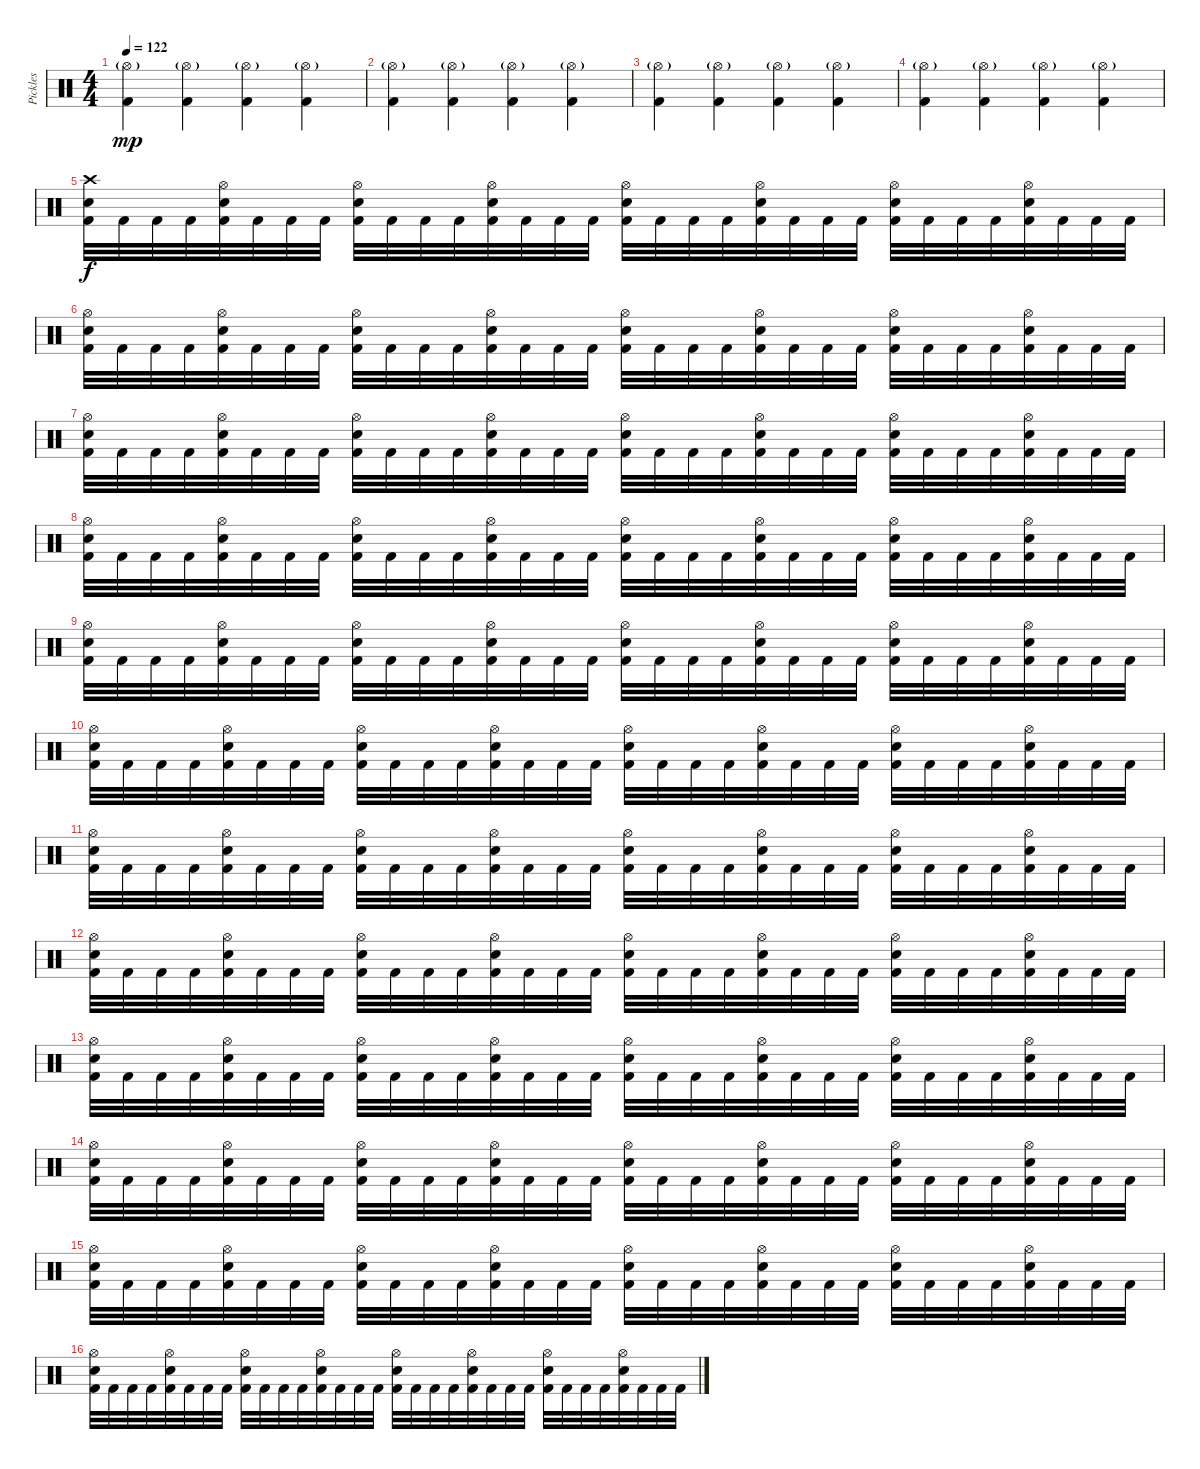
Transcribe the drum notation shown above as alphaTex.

\track ("Pickles" "Pickles") {instrument percussion}
\staff {score}
\articulation defaults
\ts (4 4)
\tempo 122
\clef neutral
\ks c
("Hi-Hat (open)"{g} "Kick (hit) 2").4{dy mp} ("Hi-Hat (open)"{g} "Kick (hit) 2").4 ("Hi-Hat (open)"{g} "Kick (hit) 2").4 ("Hi-Hat (open)"{g} "Kick (hit) 2").4 |
("Hi-Hat (open)"{g} "Kick (hit) 2").4 ("Hi-Hat (open)"{g} "Kick (hit) 2").4 ("Hi-Hat (open)"{g} "Kick (hit) 2").4 ("Hi-Hat (open)"{g} "Kick (hit) 2").4 |
("Hi-Hat (open)"{g} "Kick (hit) 2").4 ("Hi-Hat (open)"{g} "Kick (hit) 2").4 ("Hi-Hat (open)"{g} "Kick (hit) 2").4 ("Hi-Hat (open)"{g} "Kick (hit) 2").4 |
("Hi-Hat (open)"{g} "Kick (hit) 2").4 ("Hi-Hat (open)"{g} "Kick (hit) 2").4 ("Hi-Hat (open)"{g} "Kick (hit) 2").4 ("Hi-Hat (open)"{g} "Kick (hit) 2").4 |
("Crash high (hit)" "Electric Snare (hit)" "Kick (hit) 2").32{dy f} "Kick (hit) 2".32 "Kick (hit) 2".32 "Kick (hit) 2".32 ("Hi-Hat (open)" "Electric Snare (hit)" "Kick (hit) 2").32 "Kick (hit) 2".32 "Kick (hit) 2".32 "Kick (hit) 2".32 ("Hi-Hat (open)" "Electric Snare (hit)" "Kick (hit) 2").32 "Kick (hit) 2".32 "Kick (hit) 2".32 "Kick (hit) 2".32 ("Hi-Hat (open)" "Electric Snare (hit)" "Kick (hit) 2").32 "Kick (hit) 2".32 "Kick (hit) 2".32 "Kick (hit) 2".32 ("Hi-Hat (open)" "Electric Snare (hit)" "Kick (hit) 2").32 "Kick (hit) 2".32 "Kick (hit) 2".32 "Kick (hit) 2".32 ("Hi-Hat (open)" "Electric Snare (hit)" "Kick (hit) 2").32 "Kick (hit) 2".32 "Kick (hit) 2".32 "Kick (hit) 2".32 ("Hi-Hat (open)" "Electric Snare (hit)" "Kick (hit) 2").32 "Kick (hit) 2".32 "Kick (hit) 2".32 "Kick (hit) 2".32 ("Hi-Hat (open)" "Electric Snare (hit)" "Kick (hit) 2").32 "Kick (hit) 2".32 "Kick (hit) 2".32 "Kick (hit) 2".32 |
("Hi-Hat (open)" "Electric Snare (hit)" "Kick (hit) 2").32 "Kick (hit) 2".32 "Kick (hit) 2".32 "Kick (hit) 2".32 ("Hi-Hat (open)" "Electric Snare (hit)" "Kick (hit) 2").32 "Kick (hit) 2".32 "Kick (hit) 2".32 "Kick (hit) 2".32 ("Hi-Hat (open)" "Electric Snare (hit)" "Kick (hit) 2").32 "Kick (hit) 2".32 "Kick (hit) 2".32 "Kick (hit) 2".32 ("Hi-Hat (open)" "Electric Snare (hit)" "Kick (hit) 2").32 "Kick (hit) 2".32 "Kick (hit) 2".32 "Kick (hit) 2".32 ("Hi-Hat (open)" "Electric Snare (hit)" "Kick (hit) 2").32 "Kick (hit) 2".32 "Kick (hit) 2".32 "Kick (hit) 2".32 ("Hi-Hat (open)" "Electric Snare (hit)" "Kick (hit) 2").32 "Kick (hit) 2".32 "Kick (hit) 2".32 "Kick (hit) 2".32 ("Hi-Hat (open)" "Electric Snare (hit)" "Kick (hit) 2").32 "Kick (hit) 2".32 "Kick (hit) 2".32 "Kick (hit) 2".32 ("Hi-Hat (open)" "Electric Snare (hit)" "Kick (hit) 2").32 "Kick (hit) 2".32 "Kick (hit) 2".32 "Kick (hit) 2".32 |
("Hi-Hat (open)" "Electric Snare (hit)" "Kick (hit) 2").32 "Kick (hit) 2".32 "Kick (hit) 2".32 "Kick (hit) 2".32 ("Hi-Hat (open)" "Electric Snare (hit)" "Kick (hit) 2").32 "Kick (hit) 2".32 "Kick (hit) 2".32 "Kick (hit) 2".32 ("Hi-Hat (open)" "Electric Snare (hit)" "Kick (hit) 2").32 "Kick (hit) 2".32 "Kick (hit) 2".32 "Kick (hit) 2".32 ("Hi-Hat (open)" "Electric Snare (hit)" "Kick (hit) 2").32 "Kick (hit) 2".32 "Kick (hit) 2".32 "Kick (hit) 2".32 ("Hi-Hat (open)" "Electric Snare (hit)" "Kick (hit) 2").32 "Kick (hit) 2".32 "Kick (hit) 2".32 "Kick (hit) 2".32 ("Hi-Hat (open)" "Electric Snare (hit)" "Kick (hit) 2").32 "Kick (hit) 2".32 "Kick (hit) 2".32 "Kick (hit) 2".32 ("Hi-Hat (open)" "Electric Snare (hit)" "Kick (hit) 2").32 "Kick (hit) 2".32 "Kick (hit) 2".32 "Kick (hit) 2".32 ("Hi-Hat (open)" "Electric Snare (hit)" "Kick (hit) 2").32 "Kick (hit) 2".32 "Kick (hit) 2".32 "Kick (hit) 2".32 |
("Hi-Hat (open)" "Electric Snare (hit)" "Kick (hit) 2").32 "Kick (hit) 2".32 "Kick (hit) 2".32 "Kick (hit) 2".32 ("Hi-Hat (open)" "Electric Snare (hit)" "Kick (hit) 2").32 "Kick (hit) 2".32 "Kick (hit) 2".32 "Kick (hit) 2".32 ("Hi-Hat (open)" "Electric Snare (hit)" "Kick (hit) 2").32 "Kick (hit) 2".32 "Kick (hit) 2".32 "Kick (hit) 2".32 ("Hi-Hat (open)" "Electric Snare (hit)" "Kick (hit) 2").32 "Kick (hit) 2".32 "Kick (hit) 2".32 "Kick (hit) 2".32 ("Hi-Hat (open)" "Electric Snare (hit)" "Kick (hit) 2").32 "Kick (hit) 2".32 "Kick (hit) 2".32 "Kick (hit) 2".32 ("Hi-Hat (open)" "Electric Snare (hit)" "Kick (hit) 2").32 "Kick (hit) 2".32 "Kick (hit) 2".32 "Kick (hit) 2".32 ("Hi-Hat (open)" "Electric Snare (hit)" "Kick (hit) 2").32 "Kick (hit) 2".32 "Kick (hit) 2".32 "Kick (hit) 2".32 ("Hi-Hat (open)" "Electric Snare (hit)" "Kick (hit) 2").32 "Kick (hit) 2".32 "Kick (hit) 2".32 "Kick (hit) 2".32 |
("Hi-Hat (open)" "Electric Snare (hit)" "Kick (hit) 2").32 "Kick (hit) 2".32 "Kick (hit) 2".32 "Kick (hit) 2".32 ("Hi-Hat (open)" "Electric Snare (hit)" "Kick (hit) 2").32 "Kick (hit) 2".32 "Kick (hit) 2".32 "Kick (hit) 2".32 ("Hi-Hat (open)" "Electric Snare (hit)" "Kick (hit) 2").32 "Kick (hit) 2".32 "Kick (hit) 2".32 "Kick (hit) 2".32 ("Hi-Hat (open)" "Electric Snare (hit)" "Kick (hit) 2").32 "Kick (hit) 2".32 "Kick (hit) 2".32 "Kick (hit) 2".32 ("Hi-Hat (open)" "Electric Snare (hit)" "Kick (hit) 2").32 "Kick (hit) 2".32 "Kick (hit) 2".32 "Kick (hit) 2".32 ("Hi-Hat (open)" "Electric Snare (hit)" "Kick (hit) 2").32 "Kick (hit) 2".32 "Kick (hit) 2".32 "Kick (hit) 2".32 ("Hi-Hat (open)" "Electric Snare (hit)" "Kick (hit) 2").32 "Kick (hit) 2".32 "Kick (hit) 2".32 "Kick (hit) 2".32 ("Hi-Hat (open)" "Electric Snare (hit)" "Kick (hit) 2").32 "Kick (hit) 2".32 "Kick (hit) 2".32 "Kick (hit) 2".32 |
("Hi-Hat (open)" "Electric Snare (hit)" "Kick (hit) 2").32 "Kick (hit) 2".32 "Kick (hit) 2".32 "Kick (hit) 2".32 ("Hi-Hat (open)" "Electric Snare (hit)" "Kick (hit) 2").32 "Kick (hit) 2".32 "Kick (hit) 2".32 "Kick (hit) 2".32 ("Hi-Hat (open)" "Electric Snare (hit)" "Kick (hit) 2").32 "Kick (hit) 2".32 "Kick (hit) 2".32 "Kick (hit) 2".32 ("Hi-Hat (open)" "Electric Snare (hit)" "Kick (hit) 2").32 "Kick (hit) 2".32 "Kick (hit) 2".32 "Kick (hit) 2".32 ("Hi-Hat (open)" "Electric Snare (hit)" "Kick (hit) 2").32 "Kick (hit) 2".32 "Kick (hit) 2".32 "Kick (hit) 2".32 ("Hi-Hat (open)" "Electric Snare (hit)" "Kick (hit) 2").32 "Kick (hit) 2".32 "Kick (hit) 2".32 "Kick (hit) 2".32 ("Hi-Hat (open)" "Electric Snare (hit)" "Kick (hit) 2").32 "Kick (hit) 2".32 "Kick (hit) 2".32 "Kick (hit) 2".32 ("Hi-Hat (open)" "Electric Snare (hit)" "Kick (hit) 2").32 "Kick (hit) 2".32 "Kick (hit) 2".32 "Kick (hit) 2".32 |
("Hi-Hat (open)" "Electric Snare (hit)" "Kick (hit) 2").32 "Kick (hit) 2".32 "Kick (hit) 2".32 "Kick (hit) 2".32 ("Hi-Hat (open)" "Electric Snare (hit)" "Kick (hit) 2").32 "Kick (hit) 2".32 "Kick (hit) 2".32 "Kick (hit) 2".32 ("Hi-Hat (open)" "Electric Snare (hit)" "Kick (hit) 2").32 "Kick (hit) 2".32 "Kick (hit) 2".32 "Kick (hit) 2".32 ("Hi-Hat (open)" "Electric Snare (hit)" "Kick (hit) 2").32 "Kick (hit) 2".32 "Kick (hit) 2".32 "Kick (hit) 2".32 ("Hi-Hat (open)" "Electric Snare (hit)" "Kick (hit) 2").32 "Kick (hit) 2".32 "Kick (hit) 2".32 "Kick (hit) 2".32 ("Hi-Hat (open)" "Electric Snare (hit)" "Kick (hit) 2").32 "Kick (hit) 2".32 "Kick (hit) 2".32 "Kick (hit) 2".32 ("Hi-Hat (open)" "Electric Snare (hit)" "Kick (hit) 2").32 "Kick (hit) 2".32 "Kick (hit) 2".32 "Kick (hit) 2".32 ("Hi-Hat (open)" "Electric Snare (hit)" "Kick (hit) 2").32 "Kick (hit) 2".32 "Kick (hit) 2".32 "Kick (hit) 2".32 |
("Hi-Hat (open)" "Electric Snare (hit)" "Kick (hit) 2").32 "Kick (hit) 2".32 "Kick (hit) 2".32 "Kick (hit) 2".32 ("Hi-Hat (open)" "Electric Snare (hit)" "Kick (hit) 2").32 "Kick (hit) 2".32 "Kick (hit) 2".32 "Kick (hit) 2".32 ("Hi-Hat (open)" "Electric Snare (hit)" "Kick (hit) 2").32 "Kick (hit) 2".32 "Kick (hit) 2".32 "Kick (hit) 2".32 ("Hi-Hat (open)" "Electric Snare (hit)" "Kick (hit) 2").32 "Kick (hit) 2".32 "Kick (hit) 2".32 "Kick (hit) 2".32 ("Hi-Hat (open)" "Electric Snare (hit)" "Kick (hit) 2").32 "Kick (hit) 2".32 "Kick (hit) 2".32 "Kick (hit) 2".32 ("Hi-Hat (open)" "Electric Snare (hit)" "Kick (hit) 2").32 "Kick (hit) 2".32 "Kick (hit) 2".32 "Kick (hit) 2".32 ("Hi-Hat (open)" "Electric Snare (hit)" "Kick (hit) 2").32 "Kick (hit) 2".32 "Kick (hit) 2".32 "Kick (hit) 2".32 ("Hi-Hat (open)" "Electric Snare (hit)" "Kick (hit) 2").32 "Kick (hit) 2".32 "Kick (hit) 2".32 "Kick (hit) 2".32 |
("Hi-Hat (open)" "Electric Snare (hit)" "Kick (hit) 2").32 "Kick (hit) 2".32 "Kick (hit) 2".32 "Kick (hit) 2".32 ("Hi-Hat (open)" "Electric Snare (hit)" "Kick (hit) 2").32 "Kick (hit) 2".32 "Kick (hit) 2".32 "Kick (hit) 2".32 ("Hi-Hat (open)" "Electric Snare (hit)" "Kick (hit) 2").32 "Kick (hit) 2".32 "Kick (hit) 2".32 "Kick (hit) 2".32 ("Hi-Hat (open)" "Electric Snare (hit)" "Kick (hit) 2").32 "Kick (hit) 2".32 "Kick (hit) 2".32 "Kick (hit) 2".32 ("Hi-Hat (open)" "Electric Snare (hit)" "Kick (hit) 2").32 "Kick (hit) 2".32 "Kick (hit) 2".32 "Kick (hit) 2".32 ("Hi-Hat (open)" "Electric Snare (hit)" "Kick (hit) 2").32 "Kick (hit) 2".32 "Kick (hit) 2".32 "Kick (hit) 2".32 ("Hi-Hat (open)" "Electric Snare (hit)" "Kick (hit) 2").32 "Kick (hit) 2".32 "Kick (hit) 2".32 "Kick (hit) 2".32 ("Hi-Hat (open)" "Electric Snare (hit)" "Kick (hit) 2").32 "Kick (hit) 2".32 "Kick (hit) 2".32 "Kick (hit) 2".32 |
("Hi-Hat (open)" "Electric Snare (hit)" "Kick (hit) 2").32 "Kick (hit) 2".32 "Kick (hit) 2".32 "Kick (hit) 2".32 ("Hi-Hat (open)" "Electric Snare (hit)" "Kick (hit) 2").32 "Kick (hit) 2".32 "Kick (hit) 2".32 "Kick (hit) 2".32 ("Hi-Hat (open)" "Electric Snare (hit)" "Kick (hit) 2").32 "Kick (hit) 2".32 "Kick (hit) 2".32 "Kick (hit) 2".32 ("Hi-Hat (open)" "Electric Snare (hit)" "Kick (hit) 2").32 "Kick (hit) 2".32 "Kick (hit) 2".32 "Kick (hit) 2".32 ("Hi-Hat (open)" "Electric Snare (hit)" "Kick (hit) 2").32 "Kick (hit) 2".32 "Kick (hit) 2".32 "Kick (hit) 2".32 ("Hi-Hat (open)" "Electric Snare (hit)" "Kick (hit) 2").32 "Kick (hit) 2".32 "Kick (hit) 2".32 "Kick (hit) 2".32 ("Hi-Hat (open)" "Electric Snare (hit)" "Kick (hit) 2").32 "Kick (hit) 2".32 "Kick (hit) 2".32 "Kick (hit) 2".32 ("Hi-Hat (open)" "Electric Snare (hit)" "Kick (hit) 2").32 "Kick (hit) 2".32 "Kick (hit) 2".32 "Kick (hit) 2".32 |
("Hi-Hat (open)" "Electric Snare (hit)" "Kick (hit) 2").32 "Kick (hit) 2".32 "Kick (hit) 2".32 "Kick (hit) 2".32 ("Hi-Hat (open)" "Electric Snare (hit)" "Kick (hit) 2").32 "Kick (hit) 2".32 "Kick (hit) 2".32 "Kick (hit) 2".32 ("Hi-Hat (open)" "Electric Snare (hit)" "Kick (hit) 2").32 "Kick (hit) 2".32 "Kick (hit) 2".32 "Kick (hit) 2".32 ("Hi-Hat (open)" "Electric Snare (hit)" "Kick (hit) 2").32 "Kick (hit) 2".32 "Kick (hit) 2".32 "Kick (hit) 2".32 ("Hi-Hat (open)" "Electric Snare (hit)" "Kick (hit) 2").32 "Kick (hit) 2".32 "Kick (hit) 2".32 "Kick (hit) 2".32 ("Hi-Hat (open)" "Electric Snare (hit)" "Kick (hit) 2").32 "Kick (hit) 2".32 "Kick (hit) 2".32 "Kick (hit) 2".32 ("Hi-Hat (open)" "Electric Snare (hit)" "Kick (hit) 2").32 "Kick (hit) 2".32 "Kick (hit) 2".32 "Kick (hit) 2".32 ("Hi-Hat (open)" "Electric Snare (hit)" "Kick (hit) 2").32 "Kick (hit) 2".32 "Kick (hit) 2".32 "Kick (hit) 2".32 |
("Hi-Hat (open)" "Electric Snare (hit)" "Kick (hit) 2").32 "Kick (hit) 2".32 "Kick (hit) 2".32 "Kick (hit) 2".32 ("Hi-Hat (open)" "Electric Snare (hit)" "Kick (hit) 2").32 "Kick (hit) 2".32 "Kick (hit) 2".32 "Kick (hit) 2".32 ("Hi-Hat (open)" "Electric Snare (hit)" "Kick (hit) 2").32 "Kick (hit) 2".32 "Kick (hit) 2".32 "Kick (hit) 2".32 ("Hi-Hat (open)" "Electric Snare (hit)" "Kick (hit) 2").32 "Kick (hit) 2".32 "Kick (hit) 2".32 "Kick (hit) 2".32 ("Hi-Hat (open)" "Electric Snare (hit)" "Kick (hit) 2").32 "Kick (hit) 2".32 "Kick (hit) 2".32 "Kick (hit) 2".32 ("Hi-Hat (open)" "Electric Snare (hit)" "Kick (hit) 2").32 "Kick (hit) 2".32 "Kick (hit) 2".32 "Kick (hit) 2".32 ("Hi-Hat (open)" "Electric Snare (hit)" "Kick (hit) 2").32 "Kick (hit) 2".32 "Kick (hit) 2".32 "Kick (hit) 2".32 ("Hi-Hat (open)" "Electric Snare (hit)" "Kick (hit) 2").32 "Kick (hit) 2".32 "Kick (hit) 2".32 "Kick (hit) 2".32
